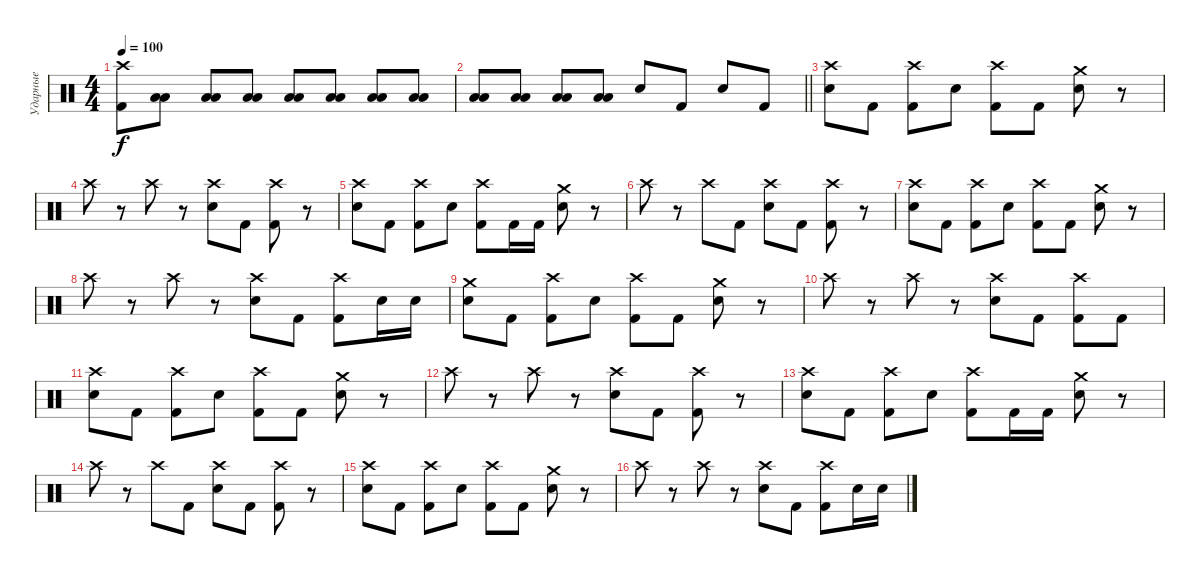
\track ("Ударные" "Ударные") {instrument percussion}
\staff {score}
\articulation defaults
\ts (4 4)
\section ("" "")
\tempo 100
\clef neutral
\ks c
("Crash high (hit)" "Kick (hit) 2").8{dy f} ("Low Tom (hit)" "Low Floor Tom (hit)").8 ("Low Tom (hit)" "Low Floor Tom (hit)").8 ("Low Tom (hit)" "Low Floor Tom (hit)").8 ("Low Tom (hit)" "Low Floor Tom (hit)").8 ("Low Tom (hit)" "Low Floor Tom (hit)").8 ("Low Tom (hit)" "Low Floor Tom (hit)").8 ("Low Tom (hit)" "Low Floor Tom (hit)").8 |
\barLineRight lightlight
("Low Tom (hit)" "Low Floor Tom (hit)").8 ("Low Tom (hit)" "Low Floor Tom (hit)").8 ("Low Tom (hit)" "Low Floor Tom (hit)").8 ("Low Tom (hit)" "Low Floor Tom (hit)").8 "Electric Snare (hit)".8 "Kick (hit) 2".8 "Electric Snare (hit)".8 "Kick (hit) 2".8 |
\section ("" "")
("Crash high (hit)" "Electric Snare (hit)").8 "Kick (hit) 2".8 ("Crash high (hit)" "Kick (hit) 2").8 "Electric Snare (hit)".8 ("Crash high (hit)" "Kick (hit) 2").8 "Kick (hit) 2".8 ("Crash medium (hit)" "Electric Snare (hit)").8 r.8 |
"Crash high (hit)".8 r.8 "Crash high (hit)".8 r.8 ("Crash high (hit)" "Electric Snare (hit)").8 "Kick (hit) 2".8 ("Crash high (hit)" "Kick (hit) 2").8 r.8 |
("Crash high (hit)" "Electric Snare (hit)").8 "Kick (hit) 2".8 ("Crash high (hit)" "Kick (hit) 2").8 "Electric Snare (hit)".8 ("Crash high (hit)" "Kick (hit) 2").8 "Kick (hit) 2".16 "Kick (hit) 2".16 ("Crash medium (hit)" "Electric Snare (hit)").8 r.8 |
"Crash high (hit)".8 r.8 "Crash high (hit)".8 "Kick (hit) 2".8 ("Crash high (hit)" "Electric Snare (hit)").8 "Kick (hit) 2".8 ("Crash high (hit)" "Kick (hit) 2").8 r.8 |
("Crash high (hit)" "Electric Snare (hit)").8 "Kick (hit) 2".8 ("Crash high (hit)" "Kick (hit) 2").8 "Electric Snare (hit)".8 ("Crash high (hit)" "Kick (hit) 2").8 "Kick (hit) 2".8 ("Crash medium (hit)" "Electric Snare (hit)").8 r.8 |
"Crash high (hit)".8 r.8 "Crash high (hit)".8 r.8 ("Crash high (hit)" "Electric Snare (hit)").8 "Kick (hit) 2".8 ("Crash high (hit)" "Kick (hit) 2").8 "Electric Snare (hit)".16 "Electric Snare (hit)".16 |
("Crash medium (hit)" "Electric Snare (hit)").8 "Kick (hit) 2".8 ("Crash high (hit)" "Kick (hit) 2").8 "Electric Snare (hit)".8 ("Crash high (hit)" "Kick (hit) 2").8 "Kick (hit) 2".8 ("Crash medium (hit)" "Electric Snare (hit)").8 r.8 |
"Crash high (hit)".8 r.8 "Crash high (hit)".8 r.8 ("Crash high (hit)" "Electric Snare (hit)").8 "Kick (hit) 2".8 ("Crash high (hit)" "Kick (hit) 2").8 "Kick (hit) 2".8 |
("Crash high (hit)" "Electric Snare (hit)").8 "Kick (hit) 2".8 ("Crash high (hit)" "Kick (hit) 2").8 "Electric Snare (hit)".8 ("Crash high (hit)" "Kick (hit) 2").8 "Kick (hit) 2".8 ("Crash medium (hit)" "Electric Snare (hit)").8 r.8 |
"Crash high (hit)".8 r.8 "Crash high (hit)".8 r.8 ("Crash high (hit)" "Electric Snare (hit)").8 "Kick (hit) 2".8 ("Crash high (hit)" "Kick (hit) 2").8 r.8 |
("Crash high (hit)" "Electric Snare (hit)").8 "Kick (hit) 2".8 ("Crash high (hit)" "Kick (hit) 2").8 "Electric Snare (hit)".8 ("Crash high (hit)" "Kick (hit) 2").8 "Kick (hit) 2".16 "Kick (hit) 2".16 ("Crash medium (hit)" "Electric Snare (hit)").8 r.8 |
"Crash high (hit)".8 r.8 "Crash high (hit)".8 "Kick (hit) 2".8 ("Crash high (hit)" "Electric Snare (hit)").8 "Kick (hit) 2".8 ("Crash high (hit)" "Kick (hit) 2").8 r.8 |
("Crash high (hit)" "Electric Snare (hit)").8 "Kick (hit) 2".8 ("Crash high (hit)" "Kick (hit) 2").8 "Electric Snare (hit)".8 ("Crash high (hit)" "Kick (hit) 2").8 "Kick (hit) 2".8 ("Crash medium (hit)" "Electric Snare (hit)").8 r.8 |
"Crash high (hit)".8 r.8 "Crash high (hit)".8 r.8 ("Crash high (hit)" "Electric Snare (hit)").8 "Kick (hit) 2".8 ("Crash high (hit)" "Kick (hit) 2").8 "Electric Snare (hit)".16 "Electric Snare (hit)".16
